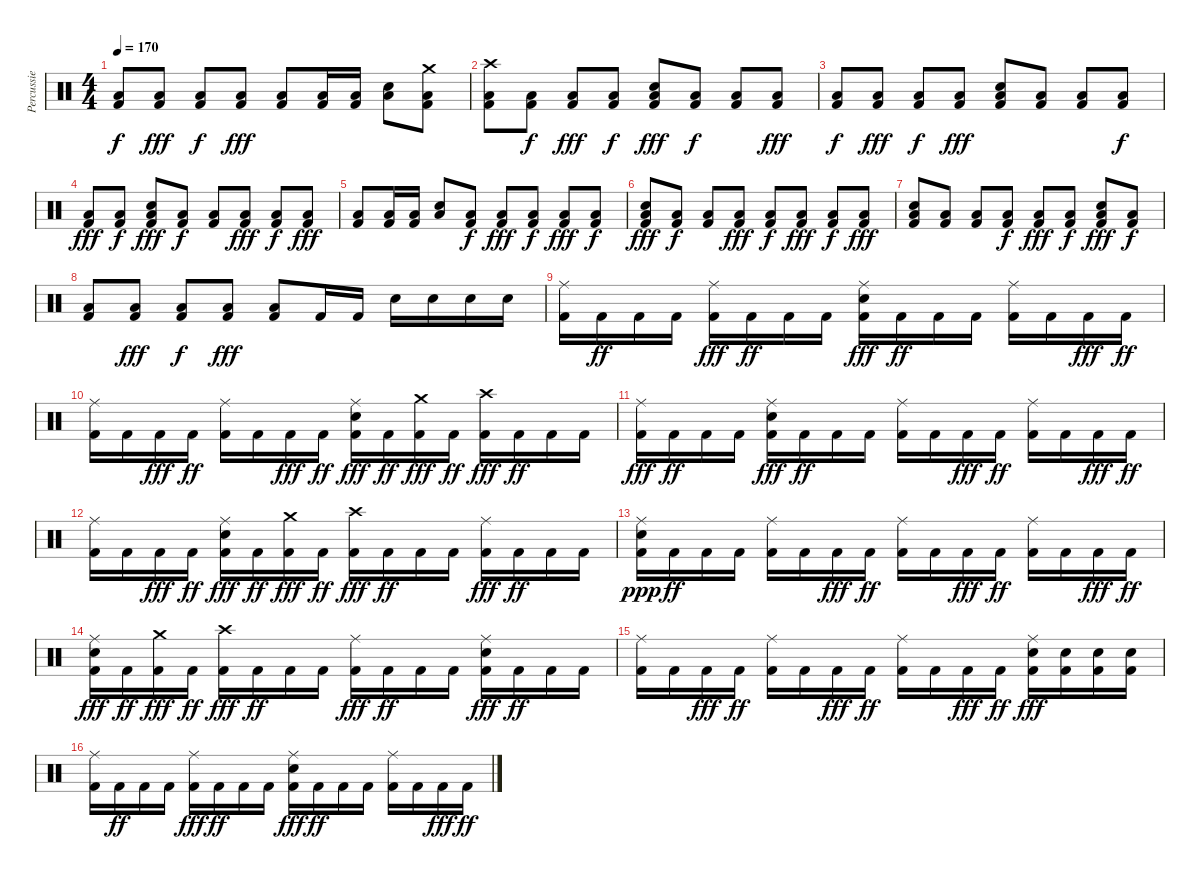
\track ("Percussie" "Percussie") {instrument percussion}
\staff {score}
\articulation defaults
\ts (4 4)
\tempo 170
\clef neutral
\ks c
("Low Floor Tom (hit)" "Kick (hit) 2").8{dy f} ("Low Floor Tom (hit)" "Kick (hit) 2").8{dy fff} ("Low Floor Tom (hit)" "Kick (hit) 2").8{dy f} ("Low Floor Tom (hit)" "Kick (hit) 2").8{dy fff} ("Low Floor Tom (hit)" "Kick (hit) 2").8 ("Low Floor Tom (hit)" "Kick (hit) 2").16 ("Low Floor Tom (hit)" "Kick (hit) 2").16 ("Electric Snare (hit)" "Low Floor Tom (hit)").8 ("Crash medium (hit)" "Low Floor Tom (hit)" "Kick (hit) 2").8 |
("Crash high (hit)" "Low Floor Tom (hit)" "Kick (hit) 2").8 ("Low Floor Tom (hit)" "Kick (hit) 2").8{dy f} ("Low Floor Tom (hit)" "Kick (hit) 2").8{dy fff} ("Low Floor Tom (hit)" "Kick (hit) 2").8{dy f} ("Electric Snare (hit)" "Low Floor Tom (hit)" "Kick (hit) 2").8{dy fff} ("Low Floor Tom (hit)" "Kick (hit) 2").8{dy f} ("Low Floor Tom (hit)" "Kick (hit) 2").8 ("Low Floor Tom (hit)" "Kick (hit) 2").8{dy fff} |
("Low Floor Tom (hit)" "Kick (hit) 2").8{dy f} ("Low Floor Tom (hit)" "Kick (hit) 2").8{dy fff} ("Low Floor Tom (hit)" "Kick (hit) 2").8{dy f} ("Low Floor Tom (hit)" "Kick (hit) 2").8{dy fff} ("Electric Snare (hit)" "Low Floor Tom (hit)" "Kick (hit) 2").8 ("Low Floor Tom (hit)" "Kick (hit) 2").8 ("Low Floor Tom (hit)" "Kick (hit) 2").8 ("Low Floor Tom (hit)" "Kick (hit) 2").8{dy f} |
("Low Floor Tom (hit)" "Kick (hit) 2").8{dy fff} ("Low Floor Tom (hit)" "Kick (hit) 2").8{dy f} ("Electric Snare (hit)" "Low Floor Tom (hit)" "Kick (hit) 2").8{dy fff} ("Low Floor Tom (hit)" "Kick (hit) 2").8{dy f} ("Low Floor Tom (hit)" "Kick (hit) 2").8 ("Low Floor Tom (hit)" "Kick (hit) 2").8{dy fff} ("Low Floor Tom (hit)" "Kick (hit) 2").8{dy f} ("Low Floor Tom (hit)" "Kick (hit) 2").8{dy fff} |
("Low Floor Tom (hit)" "Kick (hit) 2").8 ("Low Floor Tom (hit)" "Kick (hit) 2").16 ("Low Floor Tom (hit)" "Kick (hit) 2").16 ("Electric Snare (hit)" "Low Floor Tom (hit)").8 ("Low Floor Tom (hit)" "Kick (hit) 2").8{dy f} ("Low Floor Tom (hit)" "Kick (hit) 2").8{dy fff} ("Low Floor Tom (hit)" "Kick (hit) 2").8{dy f} ("Low Floor Tom (hit)" "Kick (hit) 2").8{dy fff} ("Low Floor Tom (hit)" "Kick (hit) 2").8{dy f} |
("Electric Snare (hit)" "Low Floor Tom (hit)" "Kick (hit) 2").8{dy fff} ("Low Floor Tom (hit)" "Kick (hit) 2").8{dy f} ("Low Floor Tom (hit)" "Kick (hit) 2").8 ("Low Floor Tom (hit)" "Kick (hit) 2").8{dy fff} ("Low Floor Tom (hit)" "Kick (hit) 2").8{dy f} ("Low Floor Tom (hit)" "Kick (hit) 2").8{dy fff} ("Low Floor Tom (hit)" "Kick (hit) 2").8{dy f} ("Low Floor Tom (hit)" "Kick (hit) 2").8{dy fff} |
("Electric Snare (hit)" "Low Floor Tom (hit)" "Kick (hit) 2").8 ("Low Floor Tom (hit)" "Kick (hit) 2").8 ("Low Floor Tom (hit)" "Kick (hit) 2").8 ("Low Floor Tom (hit)" "Kick (hit) 2").8{dy f} ("Low Floor Tom (hit)" "Kick (hit) 2").8{dy fff} ("Low Floor Tom (hit)" "Kick (hit) 2").8{dy f} ("Electric Snare (hit)" "Low Floor Tom (hit)" "Kick (hit) 2").8{dy fff} ("Low Floor Tom (hit)" "Kick (hit) 2").8{dy f} |
("Low Floor Tom (hit)" "Kick (hit) 2").8 ("Low Floor Tom (hit)" "Kick (hit) 2").8{dy fff} ("Low Floor Tom (hit)" "Kick (hit) 2").8{dy f} ("Low Floor Tom (hit)" "Kick (hit) 2").8{dy fff} ("Low Floor Tom (hit)" "Kick (hit) 2").8 "Kick (hit) 2".16 "Kick (hit) 2".16 "Electric Snare (hit)".16 "Electric Snare (hit)".16 "Electric Snare (hit)".16 "Electric Snare (hit)".16 |
("Ride (middle)" "Kick (hit) 2").16 "Kick (hit) 2".16{dy ff} "Kick (hit) 2".16 "Kick (hit) 2".16 ("Ride (middle)" "Kick (hit) 2").16{dy fff} "Kick (hit) 2".16{dy ff} "Kick (hit) 2".16 "Kick (hit) 2".16 ("Ride (middle)" "Electric Snare (hit)" "Kick (hit) 2").16{dy fff} "Kick (hit) 2".16{dy ff} "Kick (hit) 2".16 "Kick (hit) 2".16 ("Ride (middle)" "Kick (hit) 2").16 "Kick (hit) 2".16 "Kick (hit) 2".16{dy fff} "Kick (hit) 2".16{dy ff} |
("Ride (middle)" "Kick (hit) 2").16 "Kick (hit) 2".16 "Kick (hit) 2".16{dy fff} "Kick (hit) 2".16{dy ff} ("Ride (middle)" "Kick (hit) 2").16 "Kick (hit) 2".16 "Kick (hit) 2".16{dy fff} "Kick (hit) 2".16{dy ff} ("Ride (middle)" "Electric Snare (hit)" "Kick (hit) 2").16{dy fff} "Kick (hit) 2".16{dy ff} ("Crash medium (hit)" "Kick (hit) 2").16{dy fff} "Kick (hit) 2".16{dy ff} ("Crash high (hit)" "Kick (hit) 2").16{dy fff} "Kick (hit) 2".16{dy ff} "Kick (hit) 2".16 "Kick (hit) 2".16 |
("Ride (middle)" "Kick (hit) 2").16{dy fff} "Kick (hit) 2".16{dy ff} "Kick (hit) 2".16 "Kick (hit) 2".16 ("Ride (middle)" "Electric Snare (hit)" "Kick (hit) 2").16{dy fff} "Kick (hit) 2".16{dy ff} "Kick (hit) 2".16 "Kick (hit) 2".16 ("Ride (middle)" "Kick (hit) 2").16 "Kick (hit) 2".16 "Kick (hit) 2".16{dy fff} "Kick (hit) 2".16{dy ff} ("Ride (middle)" "Kick (hit) 2").16 "Kick (hit) 2".16 "Kick (hit) 2".16{dy fff} "Kick (hit) 2".16{dy ff} |
("Ride (middle)" "Kick (hit) 2").16 "Kick (hit) 2".16 "Kick (hit) 2".16{dy fff} "Kick (hit) 2".16{dy ff} ("Ride (middle)" "Electric Snare (hit)" "Kick (hit) 2").16{dy fff} "Kick (hit) 2".16{dy ff} ("Crash medium (hit)" "Kick (hit) 2").16{dy fff} "Kick (hit) 2".16{dy ff} ("Crash high (hit)" "Kick (hit) 2").16{dy fff} "Kick (hit) 2".16{dy ff} "Kick (hit) 2".16 "Kick (hit) 2".16 ("Ride (middle)" "Kick (hit) 2").16{dy fff} "Kick (hit) 2".16{dy ff} "Kick (hit) 2".16 "Kick (hit) 2".16 |
("Ride (middle)" "Electric Snare (hit)" "Kick (hit) 2").16{dy ppp} "Kick (hit) 2".16{dy ff} "Kick (hit) 2".16 "Kick (hit) 2".16 ("Ride (middle)" "Kick (hit) 2").16 "Kick (hit) 2".16 "Kick (hit) 2".16{dy fff} "Kick (hit) 2".16{dy ff} ("Ride (middle)" "Kick (hit) 2").16 "Kick (hit) 2".16 "Kick (hit) 2".16{dy fff} "Kick (hit) 2".16{dy ff} ("Ride (middle)" "Kick (hit) 2").16 "Kick (hit) 2".16 "Kick (hit) 2".16{dy fff} "Kick (hit) 2".16{dy ff} |
("Ride (middle)" "Electric Snare (hit)" "Kick (hit) 2").16{dy fff} "Kick (hit) 2".16{dy ff} ("Crash medium (hit)" "Kick (hit) 2").16{dy fff} "Kick (hit) 2".16{dy ff} ("Crash high (hit)" "Kick (hit) 2").16{dy fff} "Kick (hit) 2".16{dy ff} "Kick (hit) 2".16 "Kick (hit) 2".16 ("Ride (middle)" "Kick (hit) 2").16{dy fff} "Kick (hit) 2".16{dy ff} "Kick (hit) 2".16 "Kick (hit) 2".16 ("Ride (middle)" "Electric Snare (hit)" "Kick (hit) 2").16{dy fff} "Kick (hit) 2".16{dy ff} "Kick (hit) 2".16 "Kick (hit) 2".16 |
("Ride (middle)" "Kick (hit) 2").16 "Kick (hit) 2".16 "Kick (hit) 2".16{dy fff} "Kick (hit) 2".16{dy ff} ("Ride (middle)" "Kick (hit) 2").16 "Kick (hit) 2".16 "Kick (hit) 2".16{dy fff} "Kick (hit) 2".16{dy ff} ("Ride (middle)" "Kick (hit) 2").16 "Kick (hit) 2".16 "Kick (hit) 2".16{dy fff} "Kick (hit) 2".16{dy ff} ("Ride (middle)" "Electric Snare (hit)" "Kick (hit) 2").16{dy fff} ("Electric Snare (hit)" "Kick (hit) 2").16 ("Electric Snare (hit)" "Kick (hit) 2").16 ("Electric Snare (hit)" "Kick (hit) 2").16 |
("Ride (middle)" "Kick (hit) 2").16 "Kick (hit) 2".16{dy ff} "Kick (hit) 2".16 "Kick (hit) 2".16 ("Ride (middle)" "Kick (hit) 2").16{dy fff} "Kick (hit) 2".16{dy ff} "Kick (hit) 2".16 "Kick (hit) 2".16 ("Ride (middle)" "Electric Snare (hit)" "Kick (hit) 2").16{dy fff} "Kick (hit) 2".16{dy ff} "Kick (hit) 2".16 "Kick (hit) 2".16 ("Ride (middle)" "Kick (hit) 2").16 "Kick (hit) 2".16 "Kick (hit) 2".16{dy fff} "Kick (hit) 2".16{dy ff}
